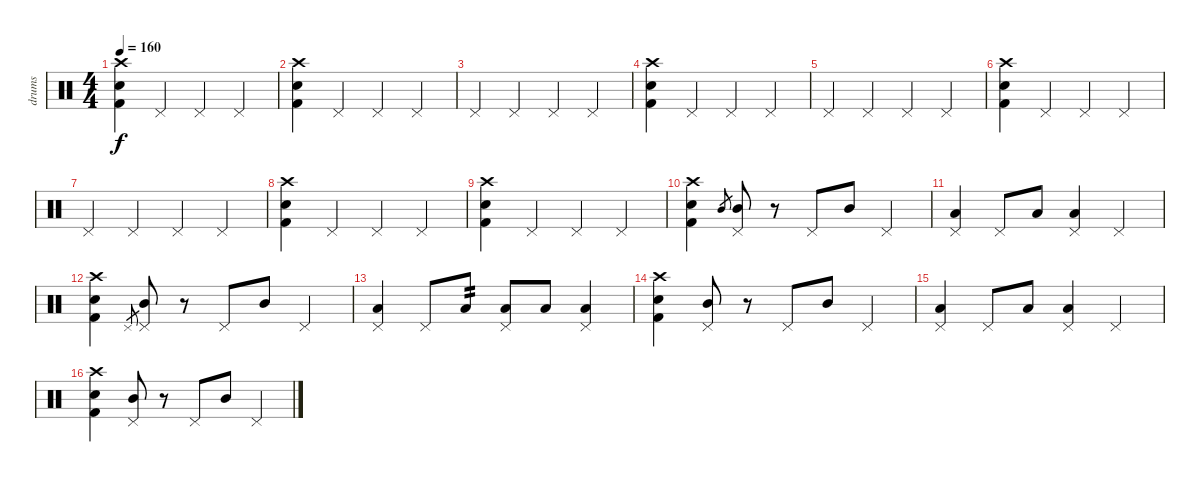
\track ("drums" "drums") {instrument percussion}
\staff {score}
\articulation defaults
\ts (4 4)
\tempo 160
\clef neutral
\ks c
("Crash high (hit)" "Electric Snare (hit)" "Kick (hit) 2").4{dy f} "Pedal Hi-Hat (hit)".4 "Pedal Hi-Hat (hit)".4 "Pedal Hi-Hat (hit)".4 |
("Crash high (hit)" "Electric Snare (hit)" "Kick (hit) 2").4 "Pedal Hi-Hat (hit)".4 "Pedal Hi-Hat (hit)".4 "Pedal Hi-Hat (hit)".4 |
"Pedal Hi-Hat (hit)".4 "Pedal Hi-Hat (hit)".4 "Pedal Hi-Hat (hit)".4 "Pedal Hi-Hat (hit)".4 |
("Crash high (hit)" "Electric Snare (hit)" "Kick (hit) 2").4 "Pedal Hi-Hat (hit)".4 "Pedal Hi-Hat (hit)".4 "Pedal Hi-Hat (hit)".4 |
"Pedal Hi-Hat (hit)".4 "Pedal Hi-Hat (hit)".4 "Pedal Hi-Hat (hit)".4 "Pedal Hi-Hat (hit)".4 |
("Crash high (hit)" "Electric Snare (hit)" "Kick (hit) 2").4 "Pedal Hi-Hat (hit)".4 "Pedal Hi-Hat (hit)".4 "Pedal Hi-Hat (hit)".4 |
"Pedal Hi-Hat (hit)".4 "Pedal Hi-Hat (hit)".4 "Pedal Hi-Hat (hit)".4 "Pedal Hi-Hat (hit)".4 |
("Crash high (hit)" "Electric Snare (hit)" "Kick (hit) 2").4 "Pedal Hi-Hat (hit)".4 "Pedal Hi-Hat (hit)".4 "Pedal Hi-Hat (hit)".4 |
("Crash high (hit)" "Electric Snare (hit)" "Kick (hit) 2").4 "Pedal Hi-Hat (hit)".4 "Pedal Hi-Hat (hit)".4 "Pedal Hi-Hat (hit)".4 |
("Crash high (hit)" "Electric Snare (hit)" "Kick (hit) 2").4 "Mid Tom (hit)".8{gr} ("Mid Tom (hit)" "Pedal Hi-Hat (hit)").8 r.8 "Pedal Hi-Hat (hit)".8 "Mid Tom (hit)".8 "Pedal Hi-Hat (hit)".4 |
("Low Tom (hit)" "Pedal Hi-Hat (hit)").4 "Pedal Hi-Hat (hit)".8 "Low Tom (hit)".8 ("Low Tom (hit)" "Pedal Hi-Hat (hit)").4 "Pedal Hi-Hat (hit)".4 |
("Crash high (hit)" "Electric Snare (hit)" "Kick (hit) 2").4 "Pedal Hi-Hat (hit)".8{gr} ("Mid Tom (hit)" "Pedal Hi-Hat (hit)").8 r.8 "Pedal Hi-Hat (hit)".8 "Mid Tom (hit)".8 "Pedal Hi-Hat (hit)".4 |
("Low Tom (hit)" "Pedal Hi-Hat (hit)").4 "Pedal Hi-Hat (hit)".8 "Low Tom (hit)".8{tp 2} ("Low Tom (hit)" "Pedal Hi-Hat (hit)").8 "Low Tom (hit)".8 ("Low Tom (hit)" "Pedal Hi-Hat (hit)").4 |
("Crash high (hit)" "Electric Snare (hit)" "Kick (hit) 2").4 ("Mid Tom (hit)" "Pedal Hi-Hat (hit)").8 r.8 "Pedal Hi-Hat (hit)".8 "Mid Tom (hit)".8 "Pedal Hi-Hat (hit)".4 |
("Low Tom (hit)" "Pedal Hi-Hat (hit)").4 "Pedal Hi-Hat (hit)".8 "Low Tom (hit)".8 ("Low Tom (hit)" "Pedal Hi-Hat (hit)").4 "Pedal Hi-Hat (hit)".4 |
("Crash high (hit)" "Electric Snare (hit)" "Kick (hit) 2").4 ("Mid Tom (hit)" "Pedal Hi-Hat (hit)").8 r.8 "Pedal Hi-Hat (hit)".8 "Mid Tom (hit)".8 "Pedal Hi-Hat (hit)".4
